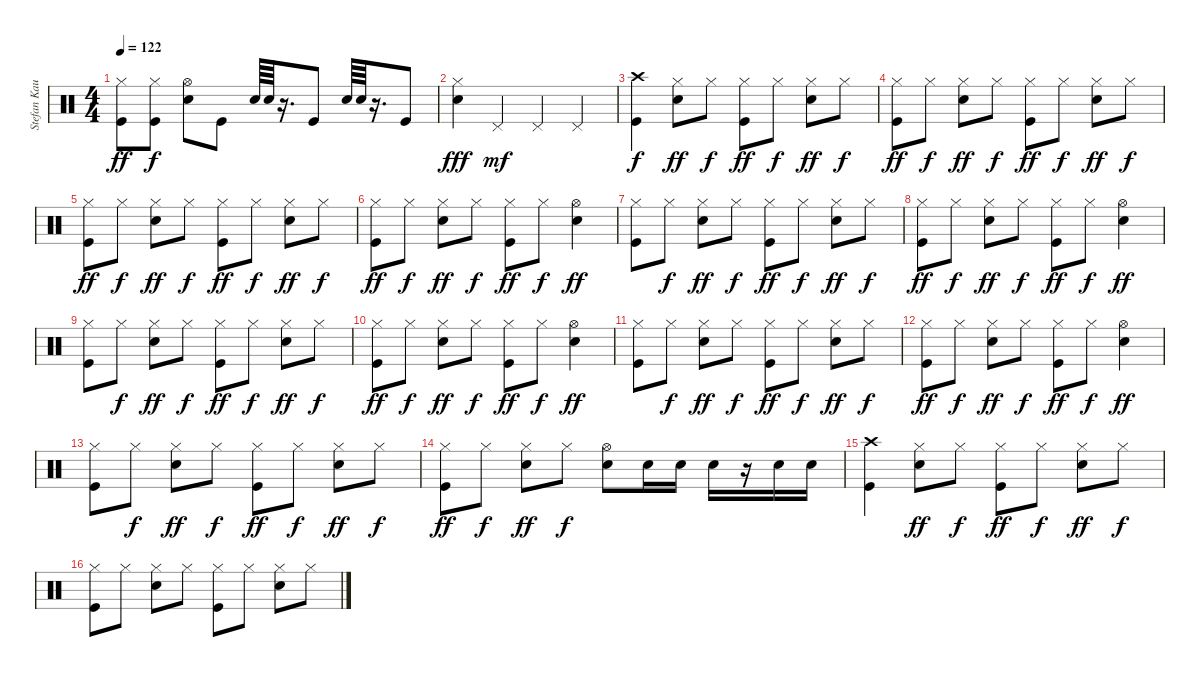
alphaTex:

\track ("Stefan Kaufmann" "Stefan Kau") {instrument percussion}
\staff {score}
\articulation defaults
\ts (4 4)
\tempo 122
\clef neutral
\ks c
("Hi-Hat (closed)" "Kick (hit)").8{dy ff} ("Hi-Hat (closed)" "Kick (hit)").8{dy f} ("Hi-Hat (open)" "Snare (hit) 2").8 "Kick (hit)".8 "Snare (hit) 2".64 "Snare (hit) 2".64 r.16{d} "Kick (hit)".8 "Snare (hit) 2".64 "Snare (hit) 2".64 r.16{d} "Kick (hit)".8 |
("Hi-Hat (closed)" "Snare (hit) 2").4{dy fff} "Pedal Hi-Hat (hit)".4{dy mf} "Pedal Hi-Hat (hit)".4 "Pedal Hi-Hat (hit)".4 |
("Crash high (hit)" "Kick (hit)").4{dy f} ("Hi-Hat (closed)" "Snare (hit) 2").8{dy ff} "Hi-Hat (closed)".8{dy f} ("Hi-Hat (closed)" "Kick (hit)").8{dy ff} "Hi-Hat (closed)".8{dy f} ("Hi-Hat (closed)" "Snare (hit) 2").8{dy ff} "Hi-Hat (closed)".8{dy f} |
("Hi-Hat (closed)" "Kick (hit)").8{dy ff} "Hi-Hat (closed)".8{dy f} ("Hi-Hat (closed)" "Snare (hit) 2").8{dy ff} "Hi-Hat (closed)".8{dy f} ("Hi-Hat (closed)" "Kick (hit)").8{dy ff} "Hi-Hat (closed)".8{dy f} ("Hi-Hat (closed)" "Snare (hit) 2").8{dy ff} "Hi-Hat (closed)".8{dy f} |
("Hi-Hat (closed)" "Kick (hit)").8{dy ff} "Hi-Hat (closed)".8{dy f} ("Hi-Hat (closed)" "Snare (hit) 2").8{dy ff} "Hi-Hat (closed)".8{dy f} ("Hi-Hat (closed)" "Kick (hit)").8{dy ff} "Hi-Hat (closed)".8{dy f} ("Hi-Hat (closed)" "Snare (hit) 2").8{dy ff} "Hi-Hat (closed)".8{dy f} |
("Hi-Hat (closed)" "Kick (hit)").8{dy ff} "Hi-Hat (closed)".8{dy f} ("Hi-Hat (closed)" "Snare (hit) 2").8{dy ff} "Hi-Hat (closed)".8{dy f} ("Hi-Hat (closed)" "Kick (hit)").8{dy ff} "Hi-Hat (closed)".8{dy f} ("Hi-Hat (open)" "Snare (hit) 2").4{dy ff} |
("Hi-Hat (closed)" "Kick (hit)").8 "Hi-Hat (closed)".8{dy f} ("Hi-Hat (closed)" "Snare (hit) 2").8{dy ff} "Hi-Hat (closed)".8{dy f} ("Hi-Hat (closed)" "Kick (hit)").8{dy ff} "Hi-Hat (closed)".8{dy f} ("Hi-Hat (closed)" "Snare (hit) 2").8{dy ff} "Hi-Hat (closed)".8{dy f} |
("Hi-Hat (closed)" "Kick (hit)").8{dy ff} "Hi-Hat (closed)".8{dy f} ("Hi-Hat (closed)" "Snare (hit) 2").8{dy ff} "Hi-Hat (closed)".8{dy f} ("Hi-Hat (closed)" "Kick (hit)").8{dy ff} "Hi-Hat (closed)".8{dy f} ("Hi-Hat (open)" "Snare (hit) 2").4{dy ff} |
("Hi-Hat (closed)" "Kick (hit)").8 "Hi-Hat (closed)".8{dy f} ("Hi-Hat (closed)" "Snare (hit) 2").8{dy ff} "Hi-Hat (closed)".8{dy f} ("Hi-Hat (closed)" "Kick (hit)").8{dy ff} "Hi-Hat (closed)".8{dy f} ("Hi-Hat (closed)" "Snare (hit) 2").8{dy ff} "Hi-Hat (closed)".8{dy f} |
("Hi-Hat (closed)" "Kick (hit)").8{dy ff} "Hi-Hat (closed)".8{dy f} ("Hi-Hat (closed)" "Snare (hit) 2").8{dy ff} "Hi-Hat (closed)".8{dy f} ("Hi-Hat (closed)" "Kick (hit)").8{dy ff} "Hi-Hat (closed)".8{dy f} ("Hi-Hat (open)" "Snare (hit) 2").4{dy ff} |
("Hi-Hat (closed)" "Kick (hit)").8 "Hi-Hat (closed)".8{dy f} ("Hi-Hat (closed)" "Snare (hit) 2").8{dy ff} "Hi-Hat (closed)".8{dy f} ("Hi-Hat (closed)" "Kick (hit)").8{dy ff} "Hi-Hat (closed)".8{dy f} ("Hi-Hat (closed)" "Snare (hit) 2").8{dy ff} "Hi-Hat (closed)".8{dy f} |
("Hi-Hat (closed)" "Kick (hit)").8{dy ff} "Hi-Hat (closed)".8{dy f} ("Hi-Hat (closed)" "Snare (hit) 2").8{dy ff} "Hi-Hat (closed)".8{dy f} ("Hi-Hat (closed)" "Kick (hit)").8{dy ff} "Hi-Hat (closed)".8{dy f} ("Hi-Hat (open)" "Snare (hit) 2").4{dy ff} |
("Hi-Hat (closed)" "Kick (hit)").8 "Hi-Hat (closed)".8{dy f} ("Hi-Hat (closed)" "Snare (hit) 2").8{dy ff} "Hi-Hat (closed)".8{dy f} ("Hi-Hat (closed)" "Kick (hit)").8{dy ff} "Hi-Hat (closed)".8{dy f} ("Hi-Hat (closed)" "Snare (hit) 2").8{dy ff} "Hi-Hat (closed)".8{dy f} |
("Hi-Hat (closed)" "Kick (hit)").8{dy ff} "Hi-Hat (closed)".8{dy f} ("Hi-Hat (closed)" "Snare (hit) 2").8{dy ff} "Hi-Hat (closed)".8{dy f} ("Hi-Hat (open)" "Snare (hit) 2").8 "Snare (hit) 2".16 "Snare (hit) 2".16 "Snare (hit) 2".16 r.16 "Snare (hit) 2".16 "Snare (hit) 2".16 |
("Crash high (hit)" "Kick (hit)").4 ("Hi-Hat (closed)" "Snare (hit) 2").8{dy ff} "Hi-Hat (closed)".8{dy f} ("Hi-Hat (closed)" "Kick (hit)").8{dy ff} "Hi-Hat (closed)".8{dy f} ("Hi-Hat (closed)" "Snare (hit) 2").8{dy ff} "Hi-Hat (closed)".8{dy f} |
("Hi-Hat (closed)" "Kick (hit)").8 "Hi-Hat (closed)".8 ("Hi-Hat (closed)" "Snare (hit) 2").8 "Hi-Hat (closed)".8 ("Hi-Hat (closed)" "Kick (hit)").8 "Hi-Hat (closed)".8 ("Hi-Hat (closed)" "Snare (hit) 2").8 "Hi-Hat (closed)".8
